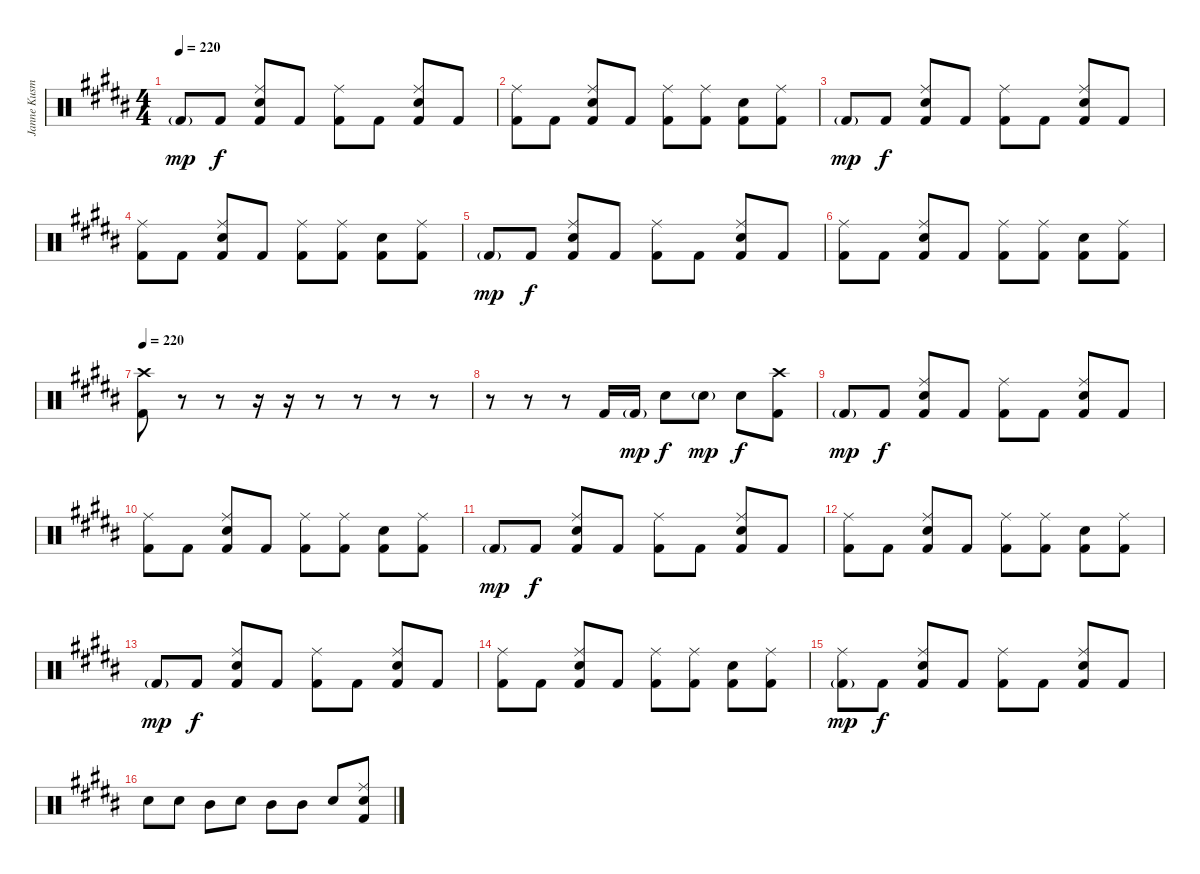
\track ("Janne Kusmin" "Janne Kusm") {instrument percussion}
\staff {score}
\articulation defaults
\ts (4 4)
\tempo 220
\clef neutral
\ks g#minor "Kick (hit) 2"{g}.8{dy mp} "Kick (hit) 2".8{dy f}
("Ride (middle)" "Electric Snare (hit)" "Kick (hit) 2").8 "Kick (hit) 2".8 ("Ride (middle)" "Kick (hit) 2").8 "Kick (hit) 2".8 ("Ride (middle)" "Electric Snare (hit)" "Kick (hit) 2").8 "Kick (hit) 2".8 |
\ks b
("Ride (middle)" "Kick (hit) 2").8 "Kick (hit) 2".8 ("Ride (middle)" "Electric Snare (hit)" "Kick (hit) 2").8 "Kick (hit) 2".8 ("Ride (middle)" "Kick (hit) 2").8 ("Ride (middle)" "Kick (hit) 2").8 ("Electric Snare (hit)" "Kick (hit) 2").8 ("Ride (middle)" "Kick (hit) 2").8 |
\ks g#minor "Kick (hit) 2"{g}.8{dy mp} "Kick (hit) 2".8{dy f}
("Ride (middle)" "Electric Snare (hit)" "Kick (hit) 2").8 "Kick (hit) 2".8 ("Ride (middle)" "Kick (hit) 2").8 "Kick (hit) 2".8 ("Ride (middle)" "Electric Snare (hit)" "Kick (hit) 2").8 "Kick (hit) 2".8 |
\ks b
("Ride (middle)" "Kick (hit) 2").8 "Kick (hit) 2".8 ("Ride (middle)" "Electric Snare (hit)" "Kick (hit) 2").8 "Kick (hit) 2".8 ("Ride (middle)" "Kick (hit) 2").8 ("Ride (middle)" "Kick (hit) 2").8 ("Electric Snare (hit)" "Kick (hit) 2").8 ("Ride (middle)" "Kick (hit) 2").8 |
\ks g#minor "Kick (hit) 2"{g}.8{dy mp} "Kick (hit) 2".8{dy f}
("Ride (middle)" "Electric Snare (hit)" "Kick (hit) 2").8 "Kick (hit) 2".8 ("Ride (middle)" "Kick (hit) 2").8 "Kick (hit) 2".8 ("Ride (middle)" "Electric Snare (hit)" "Kick (hit) 2").8 "Kick (hit) 2".8 |
("Ride (middle)" "Kick (hit) 2").8 "Kick (hit) 2".8 ("Ride (middle)" "Electric Snare (hit)" "Kick (hit) 2").8 "Kick (hit) 2".8 ("Ride (middle)" "Kick (hit) 2").8 ("Ride (middle)" "Kick (hit) 2").8 ("Electric Snare (hit)" "Kick (hit) 2").8 ("Ride (middle)" "Kick (hit) 2").8 |
\tempo 220
("Crash high (hit)" "Kick (hit) 2").8 r.8 r.8 r.16 r.16 r.8 r.8 r.8 r.8 |
r.8 r.8 r.8 "Kick (hit) 2".16 "Kick (hit) 2"{g}.16{dy mp} "Electric Snare (hit)".8{dy f} "Electric Snare (hit)"{g}.8{dy mp} "Electric Snare (hit)".8{dy f} ("Crash high (hit)" "Kick (hit) 2").8 |
"Kick (hit) 2"{g}.8{dy mp} "Kick (hit) 2".8{dy f} ("Ride (middle)" "Electric Snare (hit)" "Kick (hit) 2").8 "Kick (hit) 2".8 ("Ride (middle)" "Kick (hit) 2").8 "Kick (hit) 2".8 ("Ride (middle)" "Electric Snare (hit)" "Kick (hit) 2").8 "Kick (hit) 2".8 |
\ks b
("Ride (middle)" "Kick (hit) 2").8 "Kick (hit) 2".8 ("Ride (middle)" "Electric Snare (hit)" "Kick (hit) 2").8 "Kick (hit) 2".8 ("Ride (middle)" "Kick (hit) 2").8 ("Ride (middle)" "Kick (hit) 2").8 ("Electric Snare (hit)" "Kick (hit) 2").8 ("Ride (middle)" "Kick (hit) 2").8 |
\ks g#minor "Kick (hit) 2"{g}.8{dy mp} "Kick (hit) 2".8{dy f}
("Ride (middle)" "Electric Snare (hit)" "Kick (hit) 2").8 "Kick (hit) 2".8 ("Ride (middle)" "Kick (hit) 2").8 "Kick (hit) 2".8 ("Ride (middle)" "Electric Snare (hit)" "Kick (hit) 2").8 "Kick (hit) 2".8 |
\ks b
("Ride (middle)" "Kick (hit) 2").8 "Kick (hit) 2".8 ("Ride (middle)" "Electric Snare (hit)" "Kick (hit) 2").8 "Kick (hit) 2".8 ("Ride (middle)" "Kick (hit) 2").8 ("Ride (middle)" "Kick (hit) 2").8 ("Electric Snare (hit)" "Kick (hit) 2").8 ("Ride (middle)" "Kick (hit) 2").8 |
\ks g#minor "Kick (hit) 2"{g}.8{dy mp} "Kick (hit) 2".8{dy f}
("Ride (middle)" "Electric Snare (hit)" "Kick (hit) 2").8 "Kick (hit) 2".8 ("Ride (middle)" "Kick (hit) 2").8 "Kick (hit) 2".8 ("Ride (middle)" "Electric Snare (hit)" "Kick (hit) 2").8 "Kick (hit) 2".8 |
\ks b
("Ride (middle)" "Kick (hit) 2").8 "Kick (hit) 2".8 ("Ride (middle)" "Electric Snare (hit)" "Kick (hit) 2").8 "Kick (hit) 2".8 ("Ride (middle)" "Kick (hit) 2").8 ("Ride (middle)" "Kick (hit) 2").8 ("Electric Snare (hit)" "Kick (hit) 2").8 ("Ride (middle)" "Kick (hit) 2").8 |
\ks g#minor
("Ride (middle)" "Kick (hit) 2"{g}).8{dy mp} "Kick (hit) 2".8{dy f} ("Ride (middle)" "Electric Snare (hit)" "Kick (hit) 2").8 "Kick (hit) 2".8 ("Ride (middle)" "Kick (hit) 2").8 "Kick (hit) 2".8 ("Ride (middle)" "Electric Snare (hit)" "Kick (hit) 2").8 "Kick (hit) 2".8 |
\ks b "Electric Snare (hit)".8 "Electric Snare (hit)".8 "Mid Tom (hit)".8 "Electric Snare (hit)".8 "Mid Tom (hit)".8 "Mid Tom (hit)".8 "Electric Snare (hit)".8
("Ride (middle)" "Electric Snare (hit)" "Kick (hit) 2").8
